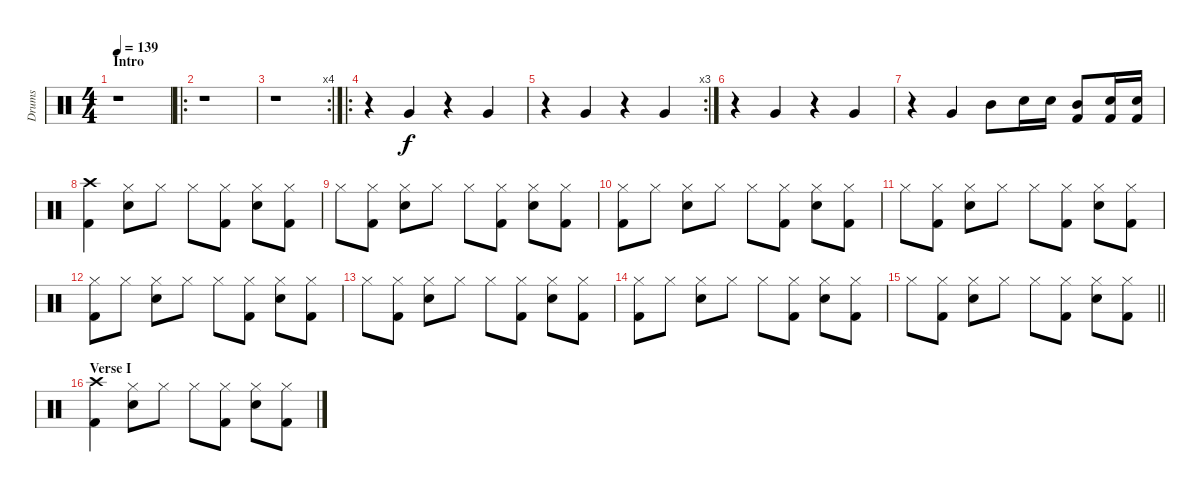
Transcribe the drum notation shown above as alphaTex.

\track ("Drums" "Drums") {instrument percussion}
\staff {score}
\articulation defaults
\ts (4 4)
\section ("" "Intro")
\tempo 139
\clef neutral
\ks c
r.1{dy f} |
\ro
r.1 |
\rc 4
r.1 |
\ro
r.4 "Very Low Tom (hit)".4 r.4 "Very Low Tom (hit)".4 |
\rc 3
r.4 "Very Low Tom (hit)".4 r.4 "Very Low Tom (hit)".4 |
r.4 "Very Low Tom (hit)".4 r.4 "Very Low Tom (hit)".4 |
r.4 "Very Low Tom (hit)".4 "Mid Tom (hit)".8 "Snare (hit) 2".16 "Snare (hit) 2".16 ("Mid Tom (hit)" "Kick (hit) 2").8 ("Snare (hit) 2" "Kick (hit) 2").16 ("Snare (hit) 2" "Kick (hit) 2").16 |
("Crash high (hit)" "Kick (hit) 2").4 ("Hi-Hat (closed)" "Snare (hit) 2").8 "Hi-Hat (closed)".8 "Hi-Hat (closed)".8 ("Hi-Hat (closed)" "Kick (hit) 2").8 ("Hi-Hat (closed)" "Snare (hit) 2").8 ("Hi-Hat (closed)" "Kick (hit) 2").8 |
"Hi-Hat (closed)".8 ("Hi-Hat (closed)" "Kick (hit) 2").8 ("Hi-Hat (closed)" "Snare (hit) 2").8 "Hi-Hat (closed)".8 "Hi-Hat (closed)".8 ("Hi-Hat (closed)" "Kick (hit) 2").8 ("Hi-Hat (closed)" "Snare (hit) 2").8 ("Hi-Hat (closed)" "Kick (hit) 2").8 |
("Hi-Hat (closed)" "Kick (hit) 2").8 "Hi-Hat (closed)".8 ("Hi-Hat (closed)" "Snare (hit) 2").8 "Hi-Hat (closed)".8 "Hi-Hat (closed)".8 ("Hi-Hat (closed)" "Kick (hit) 2").8 ("Hi-Hat (closed)" "Snare (hit) 2").8 ("Hi-Hat (closed)" "Kick (hit) 2").8 |
"Hi-Hat (closed)".8 ("Hi-Hat (closed)" "Kick (hit) 2").8 ("Hi-Hat (closed)" "Snare (hit) 2").8 "Hi-Hat (closed)".8 "Hi-Hat (closed)".8 ("Hi-Hat (closed)" "Kick (hit) 2").8 ("Hi-Hat (closed)" "Snare (hit) 2").8 ("Hi-Hat (closed)" "Kick (hit) 2").8 |
("Hi-Hat (closed)" "Kick (hit) 2").8 "Hi-Hat (closed)".8 ("Hi-Hat (closed)" "Snare (hit) 2").8 "Hi-Hat (closed)".8 "Hi-Hat (closed)".8 ("Hi-Hat (closed)" "Kick (hit) 2").8 ("Hi-Hat (closed)" "Snare (hit) 2").8 ("Hi-Hat (closed)" "Kick (hit) 2").8 |
"Hi-Hat (closed)".8 ("Hi-Hat (closed)" "Kick (hit) 2").8 ("Hi-Hat (closed)" "Snare (hit) 2").8 "Hi-Hat (closed)".8 "Hi-Hat (closed)".8 ("Hi-Hat (closed)" "Kick (hit) 2").8 ("Hi-Hat (closed)" "Snare (hit) 2").8 ("Hi-Hat (closed)" "Kick (hit) 2").8 |
("Hi-Hat (closed)" "Kick (hit) 2").8 "Hi-Hat (closed)".8 ("Hi-Hat (closed)" "Snare (hit) 2").8 "Hi-Hat (closed)".8 "Hi-Hat (closed)".8 ("Hi-Hat (closed)" "Kick (hit) 2").8 ("Hi-Hat (closed)" "Snare (hit) 2").8 ("Hi-Hat (closed)" "Kick (hit) 2").8 |
\barLineRight lightlight "Hi-Hat (closed)".8
("Hi-Hat (closed)" "Kick (hit) 2").8 ("Hi-Hat (closed)" "Snare (hit) 2").8 "Hi-Hat (closed)".8 "Hi-Hat (closed)".8 ("Hi-Hat (closed)" "Kick (hit) 2").8 ("Hi-Hat (closed)" "Snare (hit) 2").8 ("Hi-Hat (closed)" "Kick (hit) 2").8 |
\section ("" "Verse I")
("Crash high (hit)" "Kick (hit) 2").4 ("Hi-Hat (closed)" "Snare (hit) 2").8 "Hi-Hat (closed)".8 "Hi-Hat (closed)".8 ("Hi-Hat (closed)" "Kick (hit) 2").8 ("Hi-Hat (closed)" "Snare (hit) 2").8 ("Hi-Hat (closed)" "Kick (hit) 2").8
